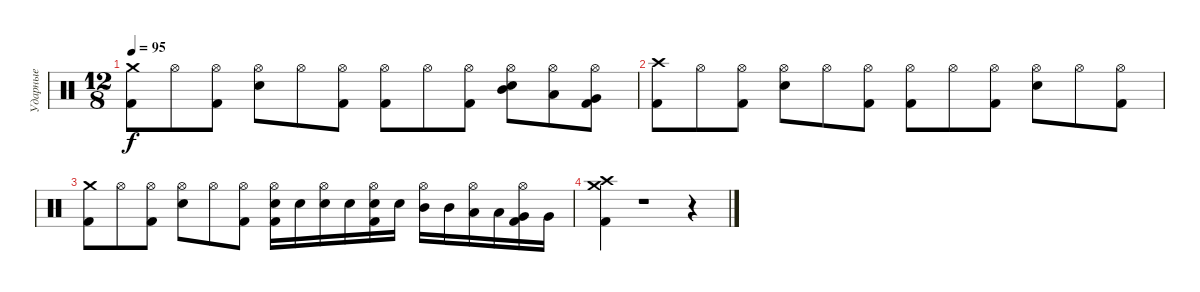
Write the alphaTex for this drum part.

\track ("Ударные" "Ударные") {instrument percussion}
\staff {score}
\articulation defaults
\ts (12 8)
\tempo 95
\clef neutral
\ks c
("Crash medium (hit)" "Kick (hit) 2").8{dy f} "Hi-Hat (open)".8 ("Hi-Hat (open)" "Kick (hit) 2").8 ("Hi-Hat (open)" "Electric Snare (hit)").8 "Hi-Hat (open)".8 ("Hi-Hat (open)" "Kick (hit) 2").8 ("Hi-Hat (open)" "Kick (hit) 2").8 "Hi-Hat (open)".8 ("Hi-Hat (open)" "Kick (hit) 2").8 ("Hi-Hat (open)" "Mid Tom (hit)" "Electric Snare (hit)").8 ("Hi-Hat (open)" "Low Tom (hit)").8 ("Hi-Hat (open)" "Very Low Tom (hit)" "Kick (hit) 2").8 |
("Crash high (hit)" "Kick (hit) 2").8 "Hi-Hat (open)".8 ("Hi-Hat (open)" "Kick (hit) 2").8 ("Hi-Hat (open)" "Electric Snare (hit)").8 "Hi-Hat (open)".8 ("Hi-Hat (open)" "Kick (hit) 2").8 ("Hi-Hat (open)" "Kick (hit) 2").8 "Hi-Hat (open)".8 ("Hi-Hat (open)" "Kick (hit) 2").8 ("Hi-Hat (open)" "Electric Snare (hit)").8 "Hi-Hat (open)".8 ("Hi-Hat (open)" "Kick (hit) 2").8 |
("Crash medium (hit)" "Kick (hit) 2").8 "Hi-Hat (open)".8 ("Hi-Hat (open)" "Kick (hit) 2").8 ("Hi-Hat (open)" "Electric Snare (hit)").8 "Hi-Hat (open)".8 ("Hi-Hat (open)" "Kick (hit) 2").8 ("Hi-Hat (open)" "Electric Snare (hit)" "Kick (hit) 2").16 "Electric Snare (hit)".16 ("Hi-Hat (open)" "Electric Snare (hit)").16 "Electric Snare (hit)".16 ("Hi-Hat (open)" "Electric Snare (hit)" "Kick (hit) 2").16 "Electric Snare (hit)".16 ("Hi-Hat (open)" "Mid Tom (hit)").16 "Mid Tom (hit)".16 ("Hi-Hat (open)" "Low Tom (hit)").16 "Low Tom (hit)".16 ("Hi-Hat (open)" "Very Low Tom (hit)" "Kick (hit) 2").16 "Very Low Tom (hit)".16 |
("Crash high (hit)" "Crash medium (hit)" "Kick (hit) 2").4 r.1 r.4
